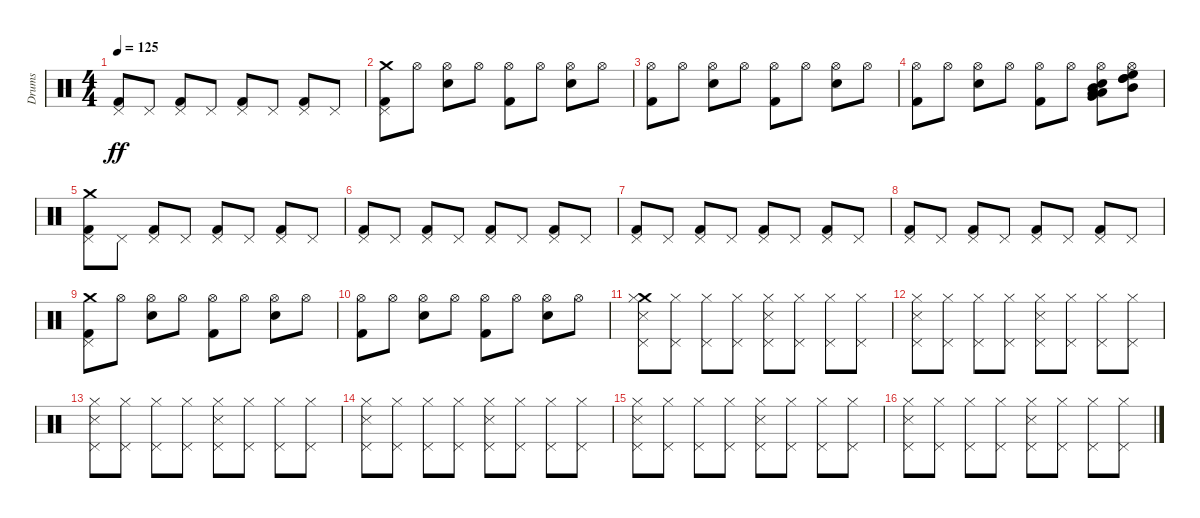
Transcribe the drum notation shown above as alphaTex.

\track ("Drums" "Drums") {instrument percussion}
\staff {score}
\articulation defaults
\ts (4 4)
\tempo 125
\clef neutral
\ks c
("Pedal Hi-Hat (hit)" "Kick (hit) 2").8{dy ff} "Pedal Hi-Hat (hit)".8 ("Pedal Hi-Hat (hit)" "Kick (hit) 2").8 "Pedal Hi-Hat (hit)".8 ("Pedal Hi-Hat (hit)" "Kick (hit) 2").8 "Pedal Hi-Hat (hit)".8 ("Pedal Hi-Hat (hit)" "Kick (hit) 2").8 "Pedal Hi-Hat (hit)".8 |
("Pedal Hi-Hat (hit)" "Kick (hit) 2" "Crash medium (hit)").8 "Hi-Hat (open)".8 ("Hi-Hat (open)" "Snare (hit) 2").8 "Hi-Hat (open)".8 ("Hi-Hat (open)" "Kick (hit) 2").8 "Hi-Hat (open)".8 ("Hi-Hat (open)" "Snare (hit) 2").8 "Hi-Hat (open)".8 |
("Kick (hit) 2" "Hi-Hat (open)").8 "Hi-Hat (open)".8 ("Hi-Hat (open)" "Snare (hit) 2").8 "Hi-Hat (open)".8 ("Hi-Hat (open)" "Kick (hit) 2").8 "Hi-Hat (open)".8 ("Hi-Hat (open)" "Snare (hit) 2").8 "Hi-Hat (open)".8 |
("Kick (hit) 2" "Hi-Hat (open)").8 "Hi-Hat (open)".8 ("Hi-Hat (open)" "Snare (hit) 2").8 "Hi-Hat (open)".8 ("Hi-Hat (open)" "Kick (hit) 2").8 "Hi-Hat (open)".8 ("Hi-Hat (open)" "Snare (hit) 2" "Low Floor Tom (hit)" "Very Low Tom (hit)" "Low Tom (hit)" "Mid Tom (hit)").8 ("Hi-Hat (open)" "High Tom (hit)" "High Floor Tom (hit)" "High Tom (hit)" "Mid Tom (hit)").8 |
("Pedal Hi-Hat (hit)" "Kick (hit) 2" "Crash medium (hit)").8 "Pedal Hi-Hat (hit)".8 ("Pedal Hi-Hat (hit)" "Kick (hit) 2").8 "Pedal Hi-Hat (hit)".8 ("Pedal Hi-Hat (hit)" "Kick (hit) 2").8 "Pedal Hi-Hat (hit)".8 ("Pedal Hi-Hat (hit)" "Kick (hit) 2").8 "Pedal Hi-Hat (hit)".8 |
("Pedal Hi-Hat (hit)" "Kick (hit) 2").8 "Pedal Hi-Hat (hit)".8 ("Pedal Hi-Hat (hit)" "Kick (hit) 2").8 "Pedal Hi-Hat (hit)".8 ("Pedal Hi-Hat (hit)" "Kick (hit) 2").8 "Pedal Hi-Hat (hit)".8 ("Pedal Hi-Hat (hit)" "Kick (hit) 2").8 "Pedal Hi-Hat (hit)".8 |
("Pedal Hi-Hat (hit)" "Kick (hit) 2").8 "Pedal Hi-Hat (hit)".8 ("Pedal Hi-Hat (hit)" "Kick (hit) 2").8 "Pedal Hi-Hat (hit)".8 ("Pedal Hi-Hat (hit)" "Kick (hit) 2").8 "Pedal Hi-Hat (hit)".8 ("Pedal Hi-Hat (hit)" "Kick (hit) 2").8 "Pedal Hi-Hat (hit)".8 |
("Pedal Hi-Hat (hit)" "Kick (hit) 2").8 "Pedal Hi-Hat (hit)".8 ("Pedal Hi-Hat (hit)" "Kick (hit) 2").8 "Pedal Hi-Hat (hit)".8 ("Pedal Hi-Hat (hit)" "Kick (hit) 2").8 "Pedal Hi-Hat (hit)".8 ("Pedal Hi-Hat (hit)" "Kick (hit) 2").8 "Pedal Hi-Hat (hit)".8 |
("Pedal Hi-Hat (hit)" "Kick (hit) 2" "Crash medium (hit)").8 "Hi-Hat (open)".8 ("Hi-Hat (open)" "Snare (hit) 2").8 "Hi-Hat (open)".8 ("Hi-Hat (open)" "Kick (hit) 2").8 "Hi-Hat (open)".8 ("Hi-Hat (open)" "Snare (hit) 2").8 "Hi-Hat (open)".8 |
("Kick (hit) 2" "Hi-Hat (open)").8 "Hi-Hat (open)".8 ("Hi-Hat (open)" "Snare (hit) 2").8 "Hi-Hat (open)".8 ("Hi-Hat (open)" "Kick (hit) 2").8 "Hi-Hat (open)".8 ("Hi-Hat (open)" "Snare (hit) 2").8 "Hi-Hat (open)".8 |
("Pedal Hi-Hat (hit)" "Snare (side stick) 3" "Crash medium (hit)" "Hi-Hat (closed)").8 ("Pedal Hi-Hat (hit)" "Hi-Hat (closed)").8 ("Pedal Hi-Hat (hit)" "Hi-Hat (closed)").8 ("Pedal Hi-Hat (hit)" "Hi-Hat (closed)").8 ("Pedal Hi-Hat (hit)" "Snare (side stick) 3" "Hi-Hat (closed)").8 ("Pedal Hi-Hat (hit)" "Hi-Hat (closed)").8 ("Pedal Hi-Hat (hit)" "Hi-Hat (closed)").8 ("Pedal Hi-Hat (hit)" "Hi-Hat (closed)").8 |
("Pedal Hi-Hat (hit)" "Snare (side stick) 3" "Hi-Hat (closed)").8 ("Pedal Hi-Hat (hit)" "Hi-Hat (closed)").8 ("Pedal Hi-Hat (hit)" "Hi-Hat (closed)").8 ("Pedal Hi-Hat (hit)" "Hi-Hat (closed)").8 ("Pedal Hi-Hat (hit)" "Snare (side stick) 3" "Hi-Hat (closed)").8 ("Pedal Hi-Hat (hit)" "Hi-Hat (closed)").8 ("Pedal Hi-Hat (hit)" "Hi-Hat (closed)").8 ("Pedal Hi-Hat (hit)" "Hi-Hat (closed)").8 |
("Pedal Hi-Hat (hit)" "Snare (side stick) 3" "Hi-Hat (closed)").8 ("Pedal Hi-Hat (hit)" "Hi-Hat (closed)").8 ("Pedal Hi-Hat (hit)" "Hi-Hat (closed)").8 ("Pedal Hi-Hat (hit)" "Hi-Hat (closed)").8 ("Pedal Hi-Hat (hit)" "Snare (side stick) 3" "Hi-Hat (closed)").8 ("Pedal Hi-Hat (hit)" "Hi-Hat (closed)").8 ("Pedal Hi-Hat (hit)" "Hi-Hat (closed)").8 ("Pedal Hi-Hat (hit)" "Hi-Hat (closed)").8 |
("Pedal Hi-Hat (hit)" "Snare (side stick) 3" "Hi-Hat (closed)").8 ("Pedal Hi-Hat (hit)" "Hi-Hat (closed)").8 ("Pedal Hi-Hat (hit)" "Hi-Hat (closed)").8 ("Pedal Hi-Hat (hit)" "Hi-Hat (closed)").8 ("Pedal Hi-Hat (hit)" "Snare (side stick) 3" "Hi-Hat (closed)").8 ("Pedal Hi-Hat (hit)" "Hi-Hat (closed)").8 ("Pedal Hi-Hat (hit)" "Hi-Hat (closed)").8 ("Pedal Hi-Hat (hit)" "Hi-Hat (closed)").8 |
("Pedal Hi-Hat (hit)" "Snare (side stick) 3" "Hi-Hat (closed)").8 ("Pedal Hi-Hat (hit)" "Hi-Hat (closed)").8 ("Pedal Hi-Hat (hit)" "Hi-Hat (closed)").8 ("Pedal Hi-Hat (hit)" "Hi-Hat (closed)").8 ("Pedal Hi-Hat (hit)" "Snare (side stick) 3" "Hi-Hat (closed)").8 ("Pedal Hi-Hat (hit)" "Hi-Hat (closed)").8 ("Pedal Hi-Hat (hit)" "Hi-Hat (closed)").8 ("Pedal Hi-Hat (hit)" "Hi-Hat (closed)").8 |
("Pedal Hi-Hat (hit)" "Snare (side stick) 3" "Hi-Hat (closed)").8 ("Pedal Hi-Hat (hit)" "Hi-Hat (closed)").8 ("Pedal Hi-Hat (hit)" "Hi-Hat (closed)").8 ("Pedal Hi-Hat (hit)" "Hi-Hat (closed)").8 ("Pedal Hi-Hat (hit)" "Snare (side stick) 3" "Hi-Hat (closed)").8 ("Pedal Hi-Hat (hit)" "Hi-Hat (closed)").8 ("Pedal Hi-Hat (hit)" "Hi-Hat (closed)").8 ("Pedal Hi-Hat (hit)" "Hi-Hat (closed)").8
